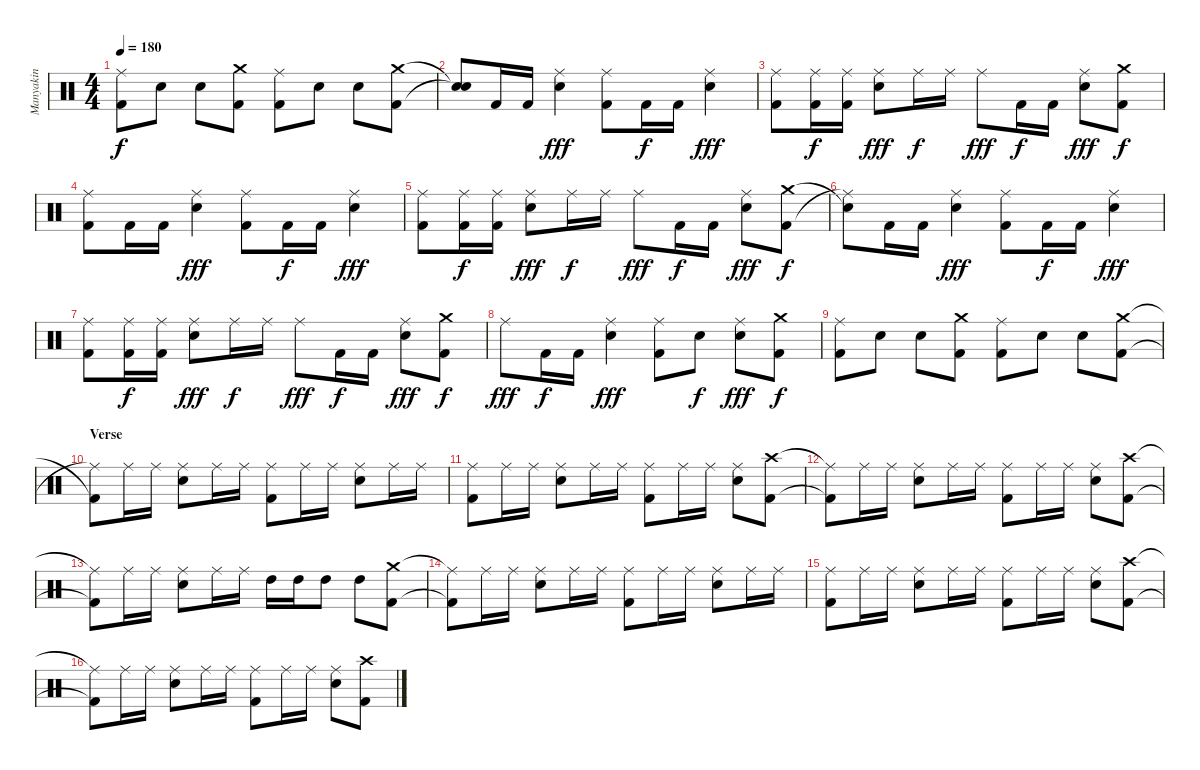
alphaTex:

\track ("Manyakin" "Manyakin") {instrument percussion}
\staff {score}
\articulation defaults
\ts (4 4)
\tempo 180
\clef neutral
\ks c
("Ride (middle)" "Kick (hit) 2").8{dy f} "Snare (hit) 2".8 "Snare (hit) 2".8 ("Kick (hit) 2" "Crash medium (hit)").8 ("Ride (middle)" "Kick (hit) 2").8 "Snare (hit) 2".8 "Snare (hit) 2".8 ("Kick (hit) 2" "Crash medium (hit)").8 |
("Snare (hit)"{t} "Snare (hit)"{t}).8 "Kick (hit) 2".16 "Kick (hit) 2".16 ("Snare (hit) 2" "Ride (middle)").4{dy fff} ("Kick (hit) 2" "Ride (middle)").8 "Kick (hit) 2".16{dy f} "Kick (hit) 2".16 ("Snare (hit) 2" "Ride (middle)").4{dy fff} |
("Kick (hit) 2" "Ride (middle)").8 ("Kick (hit) 2" "Ride (middle)").16{dy f} ("Kick (hit) 2" "Ride (middle)").16 ("Snare (hit) 2" "Ride (middle)").8{dy fff} "Ride (middle)".16{dy f} "Ride (middle)".16 "Ride (middle)".8{dy fff} "Kick (hit) 2".16{dy f} "Kick (hit) 2".16 ("Snare (hit) 2" "Ride (middle)").8{dy fff} ("Kick (hit) 2" "Crash medium (hit)").8{dy f} |
("Ride (middle)" "Kick (hit) 2").8 "Kick (hit) 2".16 "Kick (hit) 2".16 ("Snare (hit) 2" "Ride (middle)").4{dy fff} ("Kick (hit) 2" "Ride (middle)").8 "Kick (hit) 2".16{dy f} "Kick (hit) 2".16 ("Snare (hit) 2" "Ride (middle)").4{dy fff} |
("Kick (hit) 2" "Ride (middle)").8 ("Kick (hit) 2" "Ride (middle)").16{dy f} ("Kick (hit) 2" "Ride (middle)").16 ("Snare (hit) 2" "Ride (middle)").8{dy fff} "Ride (middle)".16{dy f} "Ride (middle)".16 "Ride (middle)".8{dy fff} "Kick (hit) 2".16{dy f} "Kick (hit) 2".16 ("Snare (hit) 2" "Ride (middle)").8{dy fff} ("Kick (hit) 2" "Crash medium (hit)").8{dy f} |
("Ride (middle)"{t} "Snare (hit)"{t}).8 "Kick (hit) 2".16 "Kick (hit) 2".16 ("Snare (hit) 2" "Ride (middle)").4{dy fff} ("Kick (hit) 2" "Ride (middle)").8 "Kick (hit) 2".16{dy f} "Kick (hit) 2".16 ("Snare (hit) 2" "Ride (middle)").4{dy fff} |
("Kick (hit) 2" "Ride (middle)").8 ("Kick (hit) 2" "Ride (middle)").16{dy f} ("Kick (hit) 2" "Ride (middle)").16 ("Snare (hit) 2" "Ride (middle)").8{dy fff} "Ride (middle)".16{dy f} "Ride (middle)".16 "Ride (middle)".8{dy fff} "Kick (hit) 2".16{dy f} "Kick (hit) 2".16 ("Snare (hit) 2" "Ride (middle)").8{dy fff} ("Kick (hit) 2" "Crash medium (hit)").8{dy f} |
"Ride (middle)".8{dy fff} "Kick (hit) 2".16{dy f} "Kick (hit) 2".16 ("Snare (hit) 2" "Ride (middle)").4{dy fff} ("Kick (hit) 2" "Ride (middle)").8 "Snare (hit) 2".8{dy f} ("Snare (hit) 2" "Ride (middle)").8{dy fff} ("Kick (hit) 2" "Crash medium (hit)").8{dy f} |
("Kick (hit) 2" "Ride (middle)").8 "Snare (hit) 2".8 "Snare (hit) 2".8 ("Kick (hit) 2" "Crash medium (hit)").8 ("Kick (hit) 2" "Ride (middle)").8 "Snare (hit) 2".8 "Snare (hit) 2".8 ("Kick (hit) 2" "Crash medium (hit)").8 |
\section ("" "Verse")
("Ride (middle)"{t} "Kick (hit) 2"{t}).8 "Ride (middle)".16 "Ride (middle)".16 ("Ride (middle)" "Snare (hit) 2").8 "Ride (middle)".16 "Ride (middle)".16 ("Ride (middle)" "Kick (hit) 2").8 "Ride (middle)".16 "Ride (middle)".16 ("Ride (middle)" "Snare (hit) 2").8 "Ride (middle)".16 "Ride (middle)".16 |
("Kick (hit) 2" "Ride (middle)").8 "Ride (middle)".16 "Ride (middle)".16 ("Snare (hit) 2" "Ride (middle)").8 "Ride (middle)".16 "Ride (middle)".16 ("Kick (hit) 2" "Ride (middle)").8 "Ride (middle)".16 "Ride (middle)".16 ("Snare (hit) 2" "Ride (middle)").8 ("Kick (hit) 2" "Crash high (hit)").8 |
("Kick (hit) 2"{t} "Ride (middle)"{t}).8 "Ride (middle)".16 "Ride (middle)".16 ("Snare (hit) 2" "Ride (middle)").8 "Ride (middle)".16 "Ride (middle)".16 ("Kick (hit) 2" "Ride (middle)").8 "Ride (middle)".16 "Ride (middle)".16 ("Snare (hit) 2" "Ride (middle)").8 ("Kick (hit) 2" "Crash high (hit)").8 |
("Kick (hit) 2"{t} "Ride (middle)"{t}).8 "Ride (middle)".16 "Ride (middle)".16 ("Snare (hit) 2" "Ride (middle)").8 "Ride (middle)".16 "Ride (middle)".16 "High Tom (hit)".16 "High Tom (hit)".16 "High Tom (hit)".8 "High Tom (hit)".8 ("Crash medium (hit)" "Kick (hit) 2").8 |
("Ride (middle)"{t} "Kick (hit) 2"{t}).8 "Ride (middle)".16 "Ride (middle)".16 ("Ride (middle)" "Snare (hit) 2").8 "Ride (middle)".16 "Ride (middle)".16 ("Ride (middle)" "Kick (hit) 2").8 "Ride (middle)".16 "Ride (middle)".16 ("Ride (middle)" "Snare (hit) 2").8 "Ride (middle)".16 "Ride (middle)".16 |
("Kick (hit) 2" "Ride (middle)").8 "Ride (middle)".16 "Ride (middle)".16 ("Snare (hit) 2" "Ride (middle)").8 "Ride (middle)".16 "Ride (middle)".16 ("Kick (hit) 2" "Ride (middle)").8 "Ride (middle)".16 "Ride (middle)".16 ("Snare (hit) 2" "Ride (middle)").8 ("Kick (hit) 2" "Crash high (hit)").8 |
("Kick (hit) 2"{t} "Ride (middle)"{t}).8 "Ride (middle)".16 "Ride (middle)".16 ("Snare (hit) 2" "Ride (middle)").8 "Ride (middle)".16 "Ride (middle)".16 ("Kick (hit) 2" "Ride (middle)").8 "Ride (middle)".16 "Ride (middle)".16 ("Snare (hit) 2" "Ride (middle)").8 ("Kick (hit) 2" "Crash high (hit)").8
